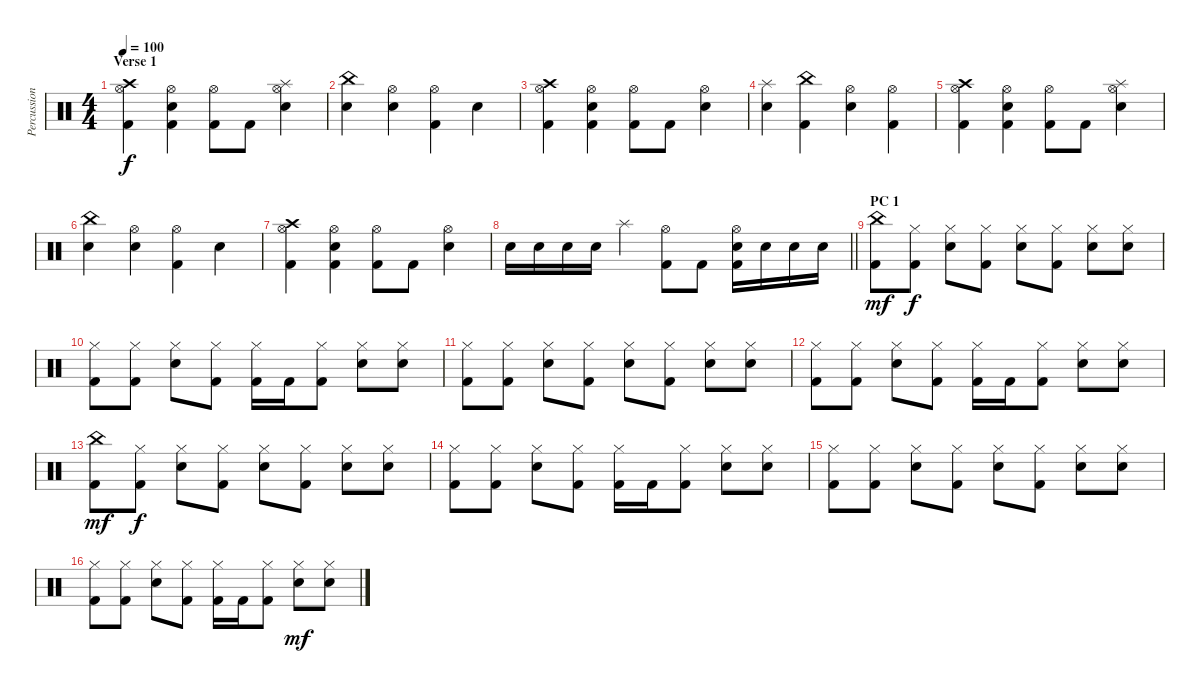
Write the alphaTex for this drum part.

\track ("Percussion" "Percussion") {instrument percussion}
\staff {score}
\articulation defaults
\ts (4 4)
\section ("" "Verse 1")
\tempo 100
\clef neutral
\ks c
("Crash high (hit)" "Hi-Hat (open)" "Kick (hit) 2").4{dy f} ("Hi-Hat (open)" "Snare (hit) 2" "Kick (hit) 2").4 ("Hi-Hat (open)" "Kick (hit) 2").8 "Kick (hit) 2".8 ("Splash (hit)" "Hi-Hat (open)" "Snare (hit) 2").4 |
("China (hit)" "Snare (hit) 2").4 ("Hi-Hat (open)" "Snare (hit) 2").4 ("Hi-Hat (open)" "Kick (hit) 2").4 "Snare (hit) 2".4 |
("Crash high (hit)" "Hi-Hat (open)" "Kick (hit) 2").4 ("Hi-Hat (open)" "Snare (hit) 2" "Kick (hit) 2").4 ("Hi-Hat (open)" "Kick (hit) 2").8 "Kick (hit) 2".8 ("Hi-Hat (open)" "Snare (hit) 2").4 |
("Splash (hit)" "Snare (hit) 2").4 ("China (hit)" "Kick (hit) 2").4 ("Hi-Hat (open)" "Snare (hit) 2").4 ("Hi-Hat (open)" "Kick (hit) 2").4 |
("Crash high (hit)" "Hi-Hat (open)" "Kick (hit) 2").4 ("Hi-Hat (open)" "Snare (hit) 2" "Kick (hit) 2").4 ("Hi-Hat (open)" "Kick (hit) 2").8 "Kick (hit) 2".8 ("Splash (hit)" "Hi-Hat (open)" "Snare (hit) 2").4 |
("China (hit)" "Snare (hit) 2").4 ("Hi-Hat (open)" "Snare (hit) 2").4 ("Hi-Hat (open)" "Kick (hit) 2").4 "Snare (hit) 2".4 |
("Crash high (hit)" "Hi-Hat (open)" "Kick (hit) 2").4 ("Hi-Hat (open)" "Snare (hit) 2" "Kick (hit) 2").4 ("Hi-Hat (open)" "Kick (hit) 2").8 "Kick (hit) 2".8 ("Hi-Hat (open)" "Snare (hit) 2").4 |
\barLineRight lightlight "Snare (hit) 2".16 "Snare (hit) 2".16 "Snare (hit) 2".16 "Snare (hit) 2".16 "Splash (hit)".4
("Hi-Hat (open)" "Kick (hit) 2").8 "Kick (hit) 2".8 ("Hi-Hat (open)" "Snare (hit) 2" "Kick (hit) 2").16 "Snare (hit) 2".16 "Snare (hit) 2".16 "Snare (hit) 2".16 |
\section ("" "PC 1")
("China (hit)" "Kick (hit) 2").8{dy mf} ("Hi-Hat (closed)" "Kick (hit) 2").8{dy f} ("Hi-Hat (closed)" "Snare (hit) 2").8 ("Hi-Hat (closed)" "Kick (hit) 2").8 ("Hi-Hat (closed)" "Snare (hit) 2").8 ("Hi-Hat (closed)" "Kick (hit) 2").8 ("Hi-Hat (closed)" "Snare (hit) 2").8 ("Hi-Hat (closed)" "Snare (hit) 2").8 |
("Hi-Hat (closed)" "Kick (hit) 2").8 ("Hi-Hat (closed)" "Kick (hit) 2").8 ("Hi-Hat (closed)" "Snare (hit) 2").8 ("Hi-Hat (closed)" "Kick (hit) 2").8 ("Hi-Hat (closed)" "Kick (hit) 2").16 "Kick (hit) 2".16 ("Hi-Hat (closed)" "Kick (hit) 2").8 ("Hi-Hat (closed)" "Snare (hit) 2").8 ("Hi-Hat (closed)" "Snare (hit) 2").8 |
("Hi-Hat (closed)" "Kick (hit) 2").8 ("Hi-Hat (closed)" "Kick (hit) 2").8 ("Hi-Hat (closed)" "Snare (hit) 2").8 ("Hi-Hat (closed)" "Kick (hit) 2").8 ("Hi-Hat (closed)" "Snare (hit) 2").8 ("Hi-Hat (closed)" "Kick (hit) 2").8 ("Hi-Hat (closed)" "Snare (hit) 2").8 ("Hi-Hat (closed)" "Snare (hit) 2").8 |
("Hi-Hat (closed)" "Kick (hit) 2").8 ("Hi-Hat (closed)" "Kick (hit) 2").8 ("Hi-Hat (closed)" "Snare (hit) 2").8 ("Hi-Hat (closed)" "Kick (hit) 2").8 ("Hi-Hat (closed)" "Kick (hit) 2").16 "Kick (hit) 2".16 ("Hi-Hat (closed)" "Kick (hit) 2").8 ("Hi-Hat (closed)" "Snare (hit) 2").8 ("Hi-Hat (closed)" "Snare (hit) 2").8 |
("China (hit)" "Kick (hit) 2").8{dy mf} ("Hi-Hat (closed)" "Kick (hit) 2").8{dy f} ("Hi-Hat (closed)" "Snare (hit) 2").8 ("Hi-Hat (closed)" "Kick (hit) 2").8 ("Hi-Hat (closed)" "Snare (hit) 2").8 ("Hi-Hat (closed)" "Kick (hit) 2").8 ("Hi-Hat (closed)" "Snare (hit) 2").8 ("Hi-Hat (closed)" "Snare (hit) 2").8 |
("Hi-Hat (closed)" "Kick (hit) 2").8 ("Hi-Hat (closed)" "Kick (hit) 2").8 ("Hi-Hat (closed)" "Snare (hit) 2").8 ("Hi-Hat (closed)" "Kick (hit) 2").8 ("Hi-Hat (closed)" "Kick (hit) 2").16 "Kick (hit) 2".16 ("Hi-Hat (closed)" "Kick (hit) 2").8 ("Hi-Hat (closed)" "Snare (hit) 2").8 ("Hi-Hat (closed)" "Snare (hit) 2").8 |
("Hi-Hat (closed)" "Kick (hit) 2").8 ("Hi-Hat (closed)" "Kick (hit) 2").8 ("Hi-Hat (closed)" "Snare (hit) 2").8 ("Hi-Hat (closed)" "Kick (hit) 2").8 ("Hi-Hat (closed)" "Snare (hit) 2").8 ("Hi-Hat (closed)" "Kick (hit) 2").8 ("Hi-Hat (closed)" "Snare (hit) 2").8 ("Hi-Hat (closed)" "Snare (hit) 2").8 |
("Hi-Hat (closed)" "Kick (hit) 2").8 ("Hi-Hat (closed)" "Kick (hit) 2").8 ("Hi-Hat (closed)" "Snare (hit) 2").8 ("Hi-Hat (closed)" "Kick (hit) 2").8 ("Hi-Hat (closed)" "Kick (hit) 2").16 "Kick (hit) 2".16 ("Hi-Hat (closed)" "Kick (hit) 2").8 ("Hi-Hat (closed)" "Snare (hit) 2").8{dy mf} ("Hi-Hat (closed)" "Snare (hit) 2").8
